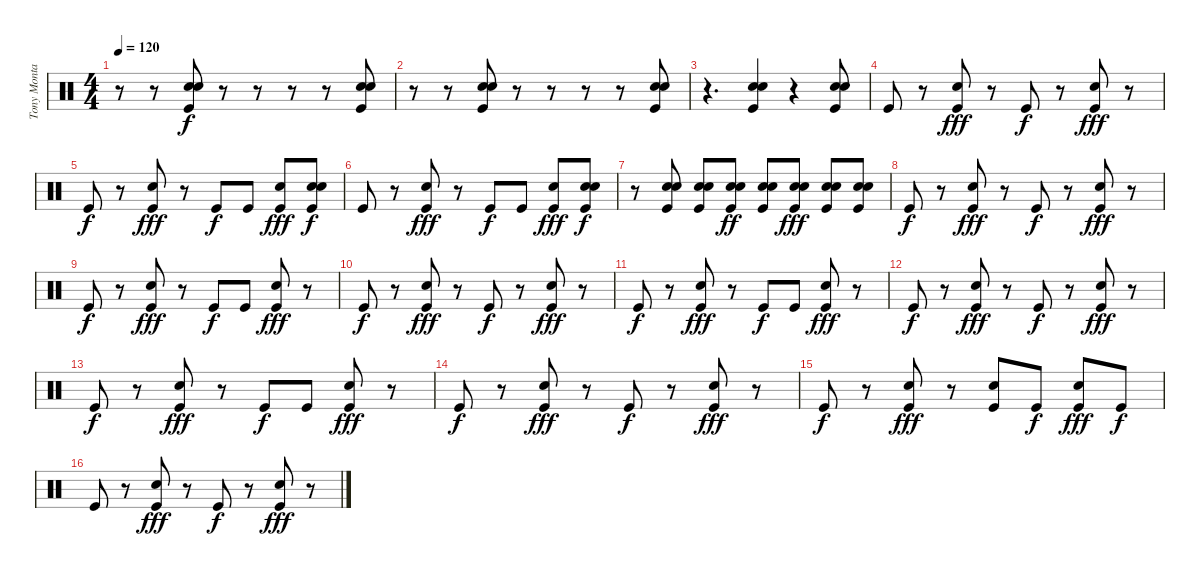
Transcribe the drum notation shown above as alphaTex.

\track ("Tony Montana" "Tony Monta") {instrument percussion}
\staff {score}
\articulation defaults
\ts (4 4)
\tempo 120
\clef neutral
\ks c
r.8{dy f} r.8 ("Kick (hit)" "Snare (hit) 2" "Snare (hit) 2").8 r.8 r.8 r.8 r.8 ("Kick (hit)" "Snare (hit) 2" "Snare (hit) 2").8 |
r.8 r.8 ("Kick (hit)" "Snare (hit) 2" "Snare (hit) 2").8 r.8 r.8 r.8 r.8 ("Kick (hit)" "Snare (hit) 2" "Snare (hit) 2").8 |
r.4{d} ("Kick (hit)" "Snare (hit) 2" "Snare (hit) 2").4 r.4 ("Kick (hit)" "Snare (hit) 2" "Snare (hit) 2").8 |
"Kick (hit)".8 r.8 ("Kick (hit)" "Snare (hit) 2").8{dy fff} r.8 "Kick (hit)".8{dy f} r.8 ("Kick (hit)" "Snare (hit) 2").8{dy fff} r.8 |
"Kick (hit)".8{dy f} r.8 ("Kick (hit)" "Snare (hit) 2").8{dy fff} r.8 "Kick (hit)".8{dy f} "Kick (hit)".8 ("Kick (hit)" "Snare (hit) 2").8{dy fff} ("Kick (hit)" "Snare (hit) 2" "Snare (hit) 2").8{dy f} |
"Kick (hit)".8 r.8 ("Kick (hit)" "Snare (hit) 2").8{dy fff} r.8 "Kick (hit)".8{dy f} "Kick (hit)".8 ("Kick (hit)" "Snare (hit) 2").8{dy fff} ("Kick (hit)" "Snare (hit) 2" "Snare (hit) 2").8{dy f} |
r.8 ("Kick (hit)" "Snare (hit) 2" "Snare (hit) 2").8 ("Kick (hit)" "Snare (hit) 2" "Snare (hit) 2").8 ("Kick (hit)" "Snare (hit) 2" "Snare (hit) 2").8{dy ff} ("Kick (hit)" "Snare (hit) 2" "Snare (hit) 2").8 ("Kick (hit)" "Snare (hit) 2" "Snare (hit) 2").8{dy fff} ("Kick (hit)" "Snare (hit) 2" "Snare (hit) 2").8 ("Kick (hit)" "Snare (hit) 2" "Snare (hit) 2").8 |
"Kick (hit)".8{dy f} r.8 ("Kick (hit)" "Snare (hit) 2").8{dy fff} r.8 "Kick (hit)".8{dy f} r.8 ("Kick (hit)" "Snare (hit) 2").8{dy fff} r.8 |
"Kick (hit)".8{dy f} r.8 ("Kick (hit)" "Snare (hit) 2").8{dy fff} r.8 "Kick (hit)".8{dy f} "Kick (hit)".8 ("Kick (hit)" "Snare (hit) 2").8{dy fff} r.8 |
"Kick (hit)".8{dy f} r.8 ("Kick (hit)" "Snare (hit) 2").8{dy fff} r.8 "Kick (hit)".8{dy f} r.8 ("Kick (hit)" "Snare (hit) 2").8{dy fff} r.8 |
"Kick (hit)".8{dy f} r.8 ("Kick (hit)" "Snare (hit) 2").8{dy fff} r.8 "Kick (hit)".8{dy f} "Kick (hit)".8 ("Kick (hit)" "Snare (hit) 2").8{dy fff} r.8 |
"Kick (hit)".8{dy f} r.8 ("Kick (hit)" "Snare (hit) 2").8{dy fff} r.8 "Kick (hit)".8{dy f} r.8 ("Kick (hit)" "Snare (hit) 2").8{dy fff} r.8 |
"Kick (hit)".8{dy f} r.8 ("Kick (hit)" "Snare (hit) 2").8{dy fff} r.8 "Kick (hit)".8{dy f} "Kick (hit)".8 ("Kick (hit)" "Snare (hit) 2").8{dy fff} r.8 |
"Kick (hit)".8{dy f} r.8 ("Kick (hit)" "Snare (hit) 2").8{dy fff} r.8 "Kick (hit)".8{dy f} r.8 ("Kick (hit)" "Snare (hit) 2").8{dy fff} r.8 |
"Kick (hit)".8{dy f} r.8 ("Kick (hit)" "Snare (hit) 2").8{dy fff} r.8 ("Kick (hit)" "Snare (hit) 2").8 "Kick (hit)".8{dy f} ("Kick (hit)" "Snare (hit) 2").8{dy fff} "Kick (hit)".8{dy f} |
"Kick (hit)".8 r.8 ("Kick (hit)" "Snare (hit) 2").8{dy fff} r.8 "Kick (hit)".8{dy f} r.8 ("Kick (hit)" "Snare (hit) 2").8{dy fff} r.8
